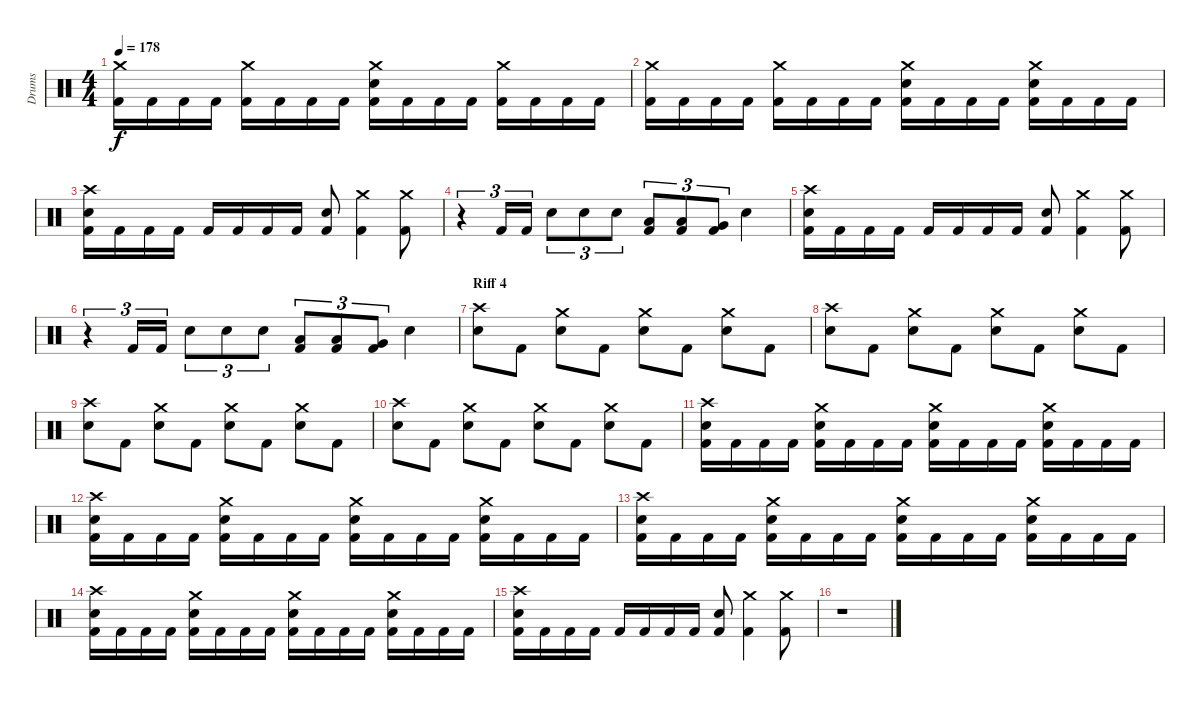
\track ("Drums" "Drums") {instrument percussion}
\staff {score}
\articulation defaults
\ts (4 4)
\tempo 178
\clef neutral
\ks c
("Crash medium (hit)" "Kick (hit) 2").16{dy f} "Kick (hit) 2".16 "Kick (hit) 2".16 "Kick (hit) 2".16 ("Crash medium (hit)" "Kick (hit) 2").16 "Kick (hit) 2".16 "Kick (hit) 2".16 "Kick (hit) 2".16 ("Crash medium (hit)" "Electric Snare (hit)" "Kick (hit) 2").16 "Kick (hit) 2".16 "Kick (hit) 2".16 "Kick (hit) 2".16 ("Crash medium (hit)" "Kick (hit) 2").16 "Kick (hit) 2".16 "Kick (hit) 2".16 "Kick (hit) 2".16 |
("Crash medium (hit)" "Kick (hit) 2").16 "Kick (hit) 2".16 "Kick (hit) 2".16 "Kick (hit) 2".16 ("Crash medium (hit)" "Kick (hit) 2").16 "Kick (hit) 2".16 "Kick (hit) 2".16 "Kick (hit) 2".16 ("Crash medium (hit)" "Electric Snare (hit)" "Kick (hit) 2").16 "Kick (hit) 2".16 "Kick (hit) 2".16 "Kick (hit) 2".16 ("Crash medium (hit)" "Electric Snare (hit)" "Kick (hit) 2").16 "Kick (hit) 2".16 "Kick (hit) 2".16 "Kick (hit) 2".16 |
("Crash high (hit)" "Electric Snare (hit)" "Kick (hit) 2").16 "Kick (hit) 2".16 "Kick (hit) 2".16 "Kick (hit) 2".16 "Kick (hit) 2".16 "Kick (hit) 2".16 "Kick (hit) 2".16 "Kick (hit) 2".16 ("Electric Snare (hit)" "Kick (hit) 2").8 ("Crash medium (hit)" "Kick (hit) 2").4 ("Crash medium (hit)" "Kick (hit) 2").8 |
r.4{tu (3 2)} "Kick (hit) 2".16{tu (3 2)} "Kick (hit) 2".16{tu (3 2)} "Electric Snare (hit)".8{tu (3 2)} "Electric Snare (hit)".8{tu (3 2)} "Electric Snare (hit)".8{tu (3 2)} ("Low Tom (hit)" "Kick (hit) 2").8{tu (3 2)} ("Low Tom (hit)" "Kick (hit) 2").8{tu (3 2)} ("Very Low Tom (hit)" "Kick (hit) 2").8{tu (3 2)} "Electric Snare (hit)".4 |
("Crash high (hit)" "Electric Snare (hit)" "Kick (hit) 2").16 "Kick (hit) 2".16 "Kick (hit) 2".16 "Kick (hit) 2".16 "Kick (hit) 2".16 "Kick (hit) 2".16 "Kick (hit) 2".16 "Kick (hit) 2".16 ("Electric Snare (hit)" "Kick (hit) 2").8 ("Crash medium (hit)" "Kick (hit) 2").4 ("Crash medium (hit)" "Kick (hit) 2").8 |
r.4{tu (3 2)} "Kick (hit) 2".16{tu (3 2)} "Kick (hit) 2".16{tu (3 2)} "Electric Snare (hit)".8{tu (3 2)} "Electric Snare (hit)".8{tu (3 2)} "Electric Snare (hit)".8{tu (3 2)} ("Low Tom (hit)" "Kick (hit) 2").8{tu (3 2)} ("Low Tom (hit)" "Kick (hit) 2").8{tu (3 2)} ("Very Low Tom (hit)" "Kick (hit) 2").8{tu (3 2)} "Electric Snare (hit)".4 |
\section ("" "Riff 4")
("Crash high (hit)" "Electric Snare (hit)").8 "Kick (hit) 2".8 ("Crash medium (hit)" "Electric Snare (hit)").8 "Kick (hit) 2".8 ("Crash medium (hit)" "Electric Snare (hit)").8 "Kick (hit) 2".8 ("Crash medium (hit)" "Electric Snare (hit)").8 "Kick (hit) 2".8 |
("Crash high (hit)" "Electric Snare (hit)").8 "Kick (hit) 2".8 ("Crash medium (hit)" "Electric Snare (hit)").8 "Kick (hit) 2".8 ("Crash medium (hit)" "Electric Snare (hit)").8 "Kick (hit) 2".8 ("Crash medium (hit)" "Electric Snare (hit)").8 "Kick (hit) 2".8 |
("Crash high (hit)" "Electric Snare (hit)").8 "Kick (hit) 2".8 ("Crash medium (hit)" "Electric Snare (hit)").8 "Kick (hit) 2".8 ("Crash medium (hit)" "Electric Snare (hit)").8 "Kick (hit) 2".8 ("Crash medium (hit)" "Electric Snare (hit)").8 "Kick (hit) 2".8 |
("Crash high (hit)" "Electric Snare (hit)").8 "Kick (hit) 2".8 ("Crash medium (hit)" "Electric Snare (hit)").8 "Kick (hit) 2".8 ("Crash medium (hit)" "Electric Snare (hit)").8 "Kick (hit) 2".8 ("Crash medium (hit)" "Electric Snare (hit)").8 "Kick (hit) 2".8 |
("Crash high (hit)" "Electric Snare (hit)" "Kick (hit) 2").16 "Kick (hit) 2".16 "Kick (hit) 2".16 "Kick (hit) 2".16 ("Crash medium (hit)" "Electric Snare (hit)" "Kick (hit) 2").16 "Kick (hit) 2".16 "Kick (hit) 2".16 "Kick (hit) 2".16 ("Crash medium (hit)" "Electric Snare (hit)" "Kick (hit) 2").16 "Kick (hit) 2".16 "Kick (hit) 2".16 "Kick (hit) 2".16 ("Crash medium (hit)" "Electric Snare (hit)" "Kick (hit) 2").16 "Kick (hit) 2".16 "Kick (hit) 2".16 "Kick (hit) 2".16 |
("Crash high (hit)" "Electric Snare (hit)" "Kick (hit) 2").16 "Kick (hit) 2".16 "Kick (hit) 2".16 "Kick (hit) 2".16 ("Crash medium (hit)" "Electric Snare (hit)" "Kick (hit) 2").16 "Kick (hit) 2".16 "Kick (hit) 2".16 "Kick (hit) 2".16 ("Crash medium (hit)" "Electric Snare (hit)" "Kick (hit) 2").16 "Kick (hit) 2".16 "Kick (hit) 2".16 "Kick (hit) 2".16 ("Crash medium (hit)" "Electric Snare (hit)" "Kick (hit) 2").16 "Kick (hit) 2".16 "Kick (hit) 2".16 "Kick (hit) 2".16 |
("Crash high (hit)" "Electric Snare (hit)" "Kick (hit) 2").16 "Kick (hit) 2".16 "Kick (hit) 2".16 "Kick (hit) 2".16 ("Crash medium (hit)" "Electric Snare (hit)" "Kick (hit) 2").16 "Kick (hit) 2".16 "Kick (hit) 2".16 "Kick (hit) 2".16 ("Crash medium (hit)" "Electric Snare (hit)" "Kick (hit) 2").16 "Kick (hit) 2".16 "Kick (hit) 2".16 "Kick (hit) 2".16 ("Crash medium (hit)" "Electric Snare (hit)" "Kick (hit) 2").16 "Kick (hit) 2".16 "Kick (hit) 2".16 "Kick (hit) 2".16 |
("Crash high (hit)" "Electric Snare (hit)" "Kick (hit) 2").16 "Kick (hit) 2".16 "Kick (hit) 2".16 "Kick (hit) 2".16 ("Crash medium (hit)" "Electric Snare (hit)" "Kick (hit) 2").16 "Kick (hit) 2".16 "Kick (hit) 2".16 "Kick (hit) 2".16 ("Crash medium (hit)" "Electric Snare (hit)" "Kick (hit) 2").16 "Kick (hit) 2".16 "Kick (hit) 2".16 "Kick (hit) 2".16 ("Crash medium (hit)" "Electric Snare (hit)" "Kick (hit) 2").16 "Kick (hit) 2".16 "Kick (hit) 2".16 "Kick (hit) 2".16 |
("Crash high (hit)" "Electric Snare (hit)" "Kick (hit) 2").16 "Kick (hit) 2".16 "Kick (hit) 2".16 "Kick (hit) 2".16 "Kick (hit) 2".16 "Kick (hit) 2".16 "Kick (hit) 2".16 "Kick (hit) 2".16 ("Electric Snare (hit)" "Kick (hit) 2").8 ("Crash medium (hit)" "Kick (hit) 2").4 ("Crash medium (hit)" "Kick (hit) 2").8 |
r.1
